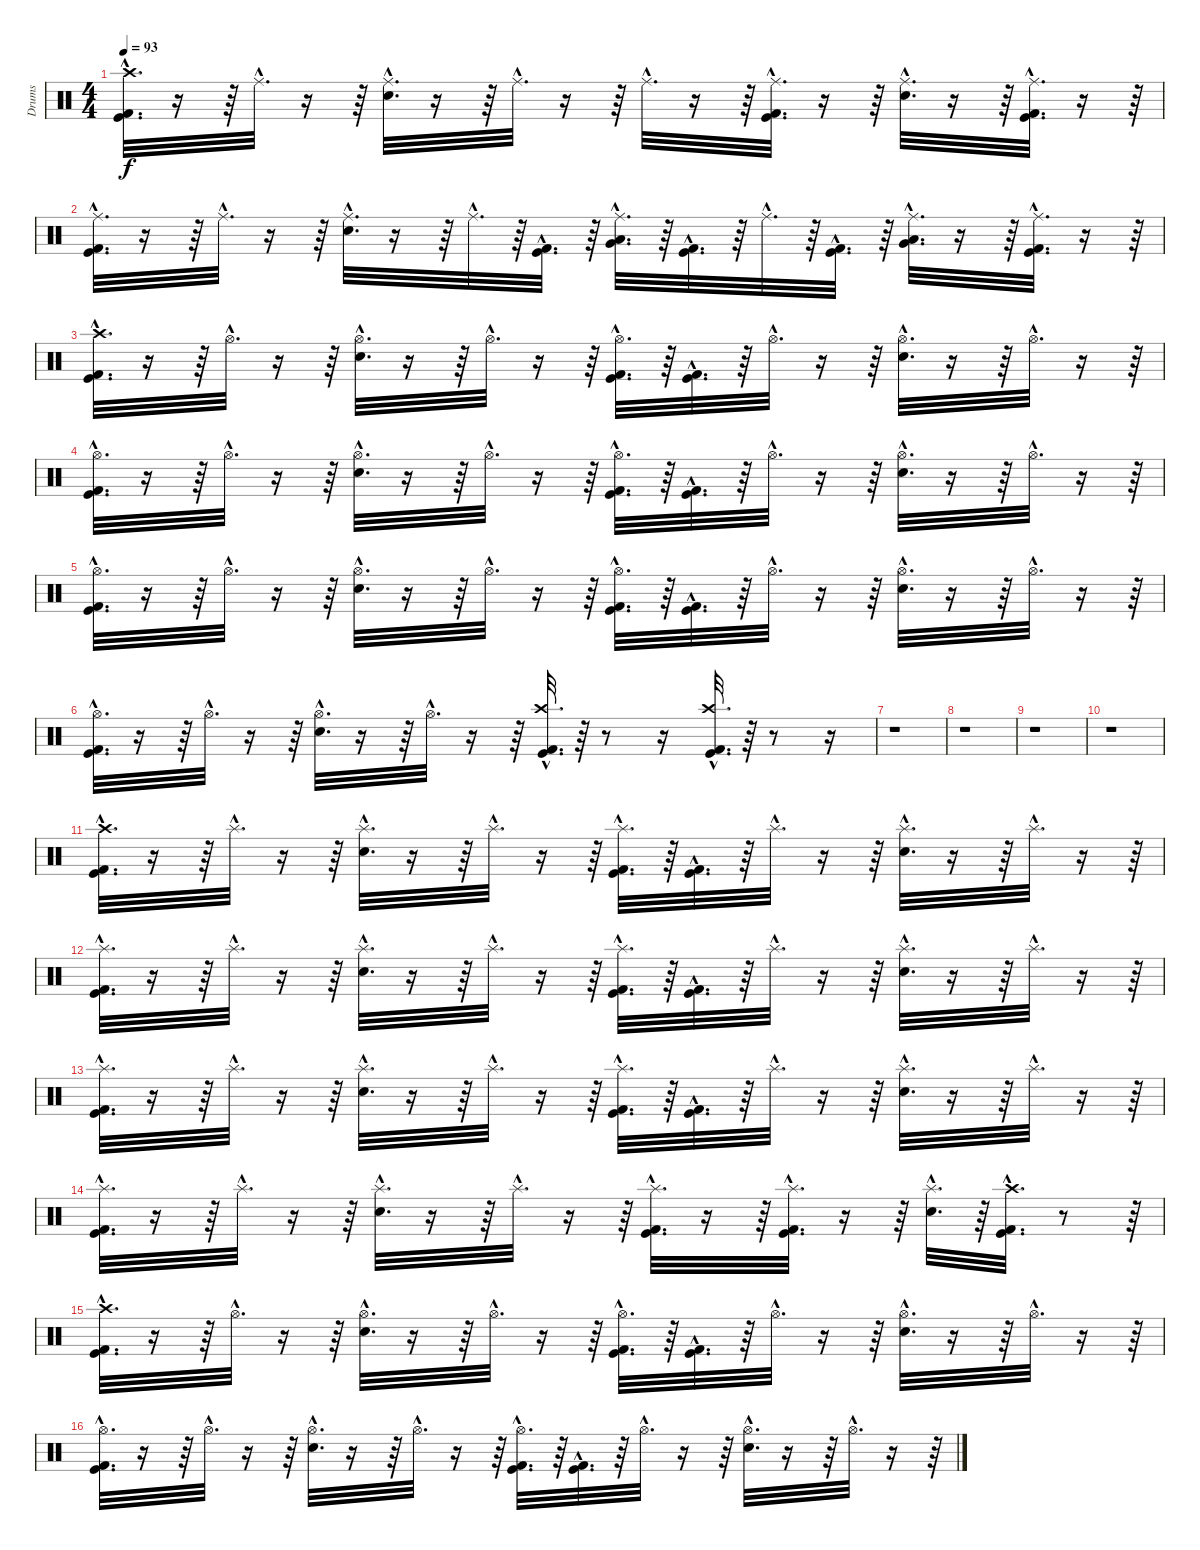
\track ("Drums" "Drums") {instrument percussion}
\staff {score}
\articulation defaults
\ts (4 4)
\tempo 93
\clef neutral
\ks c
("Kick (hit)"{hac} "Crash high (hit)"{hac} "Kick (hit) 2"{hac}).32{d dy f} r.16 r.64 "Ride (middle)"{hac}.32{d} r.16 r.64 ("Ride (middle)"{hac} "Snare (hit) 2"{hac}).32{d} r.16 r.64 "Ride (middle)"{hac}.32{d} r.16 r.64 "Ride (middle)"{hac}.32{d} r.16 r.64 ("Kick (hit)"{hac} "Ride (middle)"{hac} "Kick (hit) 2"{hac}).32{d} r.16 r.64 ("Ride (middle)"{hac} "Snare (hit) 2"{hac}).32{d} r.16 r.64 ("Kick (hit)"{hac} "Ride (middle)"{hac} "Kick (hit) 2"{hac}).32{d} r.16 r.64 |
("Kick (hit)"{hac} "Ride (middle)"{hac} "Kick (hit) 2"{hac}).32{d} r.16 r.64 "Ride (middle)"{hac}.32{d} r.16 r.64 ("Snare (hit) 2"{hac} "Ride (middle)"{hac}).32{d} r.16 r.64 "Ride (middle)"{hac}.32{d} r.64 ("Kick (hit)"{hac} "Kick (hit) 2"{hac}).32{d} r.64 ("Low Tom (hit)"{hac} "Very Low Tom (hit)"{hac} "Ride (middle)"{hac}).32{d} r.64 ("Kick (hit)"{hac} "Kick (hit) 2"{hac}).32{d} r.64 "Ride (middle)"{hac}.32{d} r.64 ("Kick (hit)"{hac} "Kick (hit) 2"{hac}).32{d} r.64 ("Low Tom (hit)"{hac} "Very Low Tom (hit)"{hac} "Ride (middle)"{hac}).32{d} r.16 r.64 ("Kick (hit)"{hac} "Ride (middle)"{hac} "Kick (hit) 2"{hac}).32{d} r.16 r.64 |
("Kick (hit)"{hac} "Crash high (hit)"{hac} "Kick (hit) 2"{hac}).32{d} r.16 r.64 "Hi-Hat (open)"{hac}.32{d} r.16 r.64 ("Hi-Hat (open)"{hac} "Snare (hit) 2"{hac}).32{d} r.16 r.64 "Hi-Hat (open)"{hac}.32{d} r.16 r.64 ("Kick (hit)"{hac} "Hi-Hat (open)"{hac} "Kick (hit) 2"{hac}).32{d} r.64 ("Kick (hit)"{hac} "Kick (hit) 2"{hac}).32{d} r.64 "Hi-Hat (open)"{hac}.32{d} r.16 r.64 ("Hi-Hat (open)"{hac} "Snare (hit) 2"{hac}).32{d} r.16 r.64 "Hi-Hat (open)"{hac}.32{d} r.16 r.64 |
("Kick (hit)"{hac} "Hi-Hat (open)"{hac} "Kick (hit) 2"{hac}).32{d} r.16 r.64 "Hi-Hat (open)"{hac}.32{d} r.16 r.64 ("Hi-Hat (open)"{hac} "Snare (hit) 2"{hac}).32{d} r.16 r.64 "Hi-Hat (open)"{hac}.32{d} r.16 r.64 ("Kick (hit)"{hac} "Hi-Hat (open)"{hac} "Kick (hit) 2"{hac}).32{d} r.64 ("Kick (hit)"{hac} "Kick (hit) 2"{hac}).32{d} r.64 "Hi-Hat (open)"{hac}.32{d} r.16 r.64 ("Hi-Hat (open)"{hac} "Snare (hit) 2"{hac}).32{d} r.16 r.64 "Hi-Hat (open)"{hac}.32{d} r.16 r.64 |
("Kick (hit)"{hac} "Hi-Hat (open)"{hac} "Kick (hit) 2"{hac}).32{d} r.16 r.64 "Hi-Hat (open)"{hac}.32{d} r.16 r.64 ("Hi-Hat (open)"{hac} "Snare (hit) 2"{hac}).32{d} r.16 r.64 "Hi-Hat (open)"{hac}.32{d} r.16 r.64 ("Kick (hit)"{hac} "Hi-Hat (open)"{hac} "Kick (hit) 2"{hac}).32{d} r.64 ("Kick (hit)"{hac} "Kick (hit) 2"{hac}).32{d} r.64 "Hi-Hat (open)"{hac}.32{d} r.16 r.64 ("Hi-Hat (open)"{hac} "Snare (hit) 2"{hac}).32{d} r.16 r.64 "Hi-Hat (open)"{hac}.32{d} r.16 r.64 |
("Kick (hit)"{hac} "Kick (hit) 2"{hac} "Hi-Hat (open)"{hac}).32{d} r.16 r.64 "Hi-Hat (open)"{hac}.32{d} r.16 r.64 ("Snare (hit) 2"{hac} "Hi-Hat (open)"{hac}).32{d} r.16 r.64 "Hi-Hat (open)"{hac}.32{d} r.16 r.64 ("Kick (hit)"{hac} "Crash high (hit)"{hac} "Kick (hit) 2"{hac}).32{d} r.64 r.8 r.16 ("Kick (hit)"{hac} "Crash high (hit)"{hac} "Kick (hit) 2"{hac}).32{d} r.64 r.8 r.16 |
r.1 |
r.1 |
r.1 |
r.1 |
("Kick (hit)"{hac} "Crash high (hit)"{hac} "Kick (hit) 2"{hac}).32{d} r.16 r.64 "Splash (hit)"{hac}.32{d} r.16 r.64 ("Splash (hit)"{hac} "Snare (hit) 2"{hac}).32{d} r.16 r.64 "Splash (hit)"{hac}.32{d} r.16 r.64 ("Kick (hit)"{hac} "Splash (hit)"{hac} "Kick (hit) 2"{hac}).32{d} r.64 ("Kick (hit)"{hac} "Kick (hit) 2"{hac}).32{d} r.64 "Splash (hit)"{hac}.32{d} r.16 r.64 ("Splash (hit)"{hac} "Snare (hit) 2"{hac}).32{d} r.16 r.64 "Splash (hit)"{hac}.32{d} r.16 r.64 |
("Kick (hit)"{hac} "Splash (hit)"{hac} "Kick (hit) 2"{hac}).32{d} r.16 r.64 "Splash (hit)"{hac}.32{d} r.16 r.64 ("Splash (hit)"{hac} "Snare (hit) 2"{hac}).32{d} r.16 r.64 "Splash (hit)"{hac}.32{d} r.16 r.64 ("Kick (hit)"{hac} "Splash (hit)"{hac} "Kick (hit) 2"{hac}).32{d} r.64 ("Kick (hit)"{hac} "Kick (hit) 2"{hac}).32{d} r.64 "Splash (hit)"{hac}.32{d} r.16 r.64 ("Splash (hit)"{hac} "Snare (hit) 2"{hac}).32{d} r.16 r.64 "Splash (hit)"{hac}.32{d} r.16 r.64 |
("Kick (hit)"{hac} "Splash (hit)"{hac} "Kick (hit) 2"{hac}).32{d} r.16 r.64 "Splash (hit)"{hac}.32{d} r.16 r.64 ("Splash (hit)"{hac} "Snare (hit) 2"{hac}).32{d} r.16 r.64 "Splash (hit)"{hac}.32{d} r.16 r.64 ("Kick (hit)"{hac} "Splash (hit)"{hac} "Kick (hit) 2"{hac}).32{d} r.64 ("Kick (hit)"{hac} "Kick (hit) 2"{hac}).32{d} r.64 "Splash (hit)"{hac}.32{d} r.16 r.64 ("Splash (hit)"{hac} "Snare (hit) 2"{hac}).32{d} r.16 r.64 "Splash (hit)"{hac}.32{d} r.16 r.64 |
("Kick (hit)"{hac} "Splash (hit)"{hac} "Kick (hit) 2"{hac}).32{d} r.16 r.64 "Splash (hit)"{hac}.32{d} r.16 r.64 ("Splash (hit)"{hac} "Snare (hit) 2"{hac}).32{d} r.16 r.64 "Splash (hit)"{hac}.32{d} r.16 r.64 ("Kick (hit)"{hac} "Kick (hit) 2"{hac} "Splash (hit)"{hac}).32{d} r.16 r.64 ("Kick (hit)"{hac} "Kick (hit) 2"{hac} "Splash (hit)"{hac}).32{d} r.16 r.64 ("Splash (hit)"{hac} "Snare (hit) 2"{hac}).32{d} r.64 ("Kick (hit)"{hac} "Crash high (hit)"{hac} "Kick (hit) 2"{hac}).32{d} r.8 r.64 |
("Kick (hit)"{hac} "Crash high (hit)"{hac} "Kick (hit) 2"{hac}).32{d} r.16 r.64 "Hi-Hat (open)"{hac}.32{d} r.16 r.64 ("Hi-Hat (open)"{hac} "Snare (hit) 2"{hac}).32{d} r.16 r.64 "Hi-Hat (open)"{hac}.32{d} r.16 r.64 ("Kick (hit)"{hac} "Hi-Hat (open)"{hac} "Kick (hit) 2"{hac}).32{d} r.64 ("Kick (hit)"{hac} "Kick (hit) 2"{hac}).32{d} r.64 "Hi-Hat (open)"{hac}.32{d} r.16 r.64 ("Hi-Hat (open)"{hac} "Snare (hit) 2"{hac}).32{d} r.16 r.64 "Hi-Hat (open)"{hac}.32{d} r.16 r.64 |
("Kick (hit)"{hac} "Hi-Hat (open)"{hac} "Kick (hit) 2"{hac}).32{d} r.16 r.64 "Hi-Hat (open)"{hac}.32{d} r.16 r.64 ("Hi-Hat (open)"{hac} "Snare (hit) 2"{hac}).32{d} r.16 r.64 "Hi-Hat (open)"{hac}.32{d} r.16 r.64 ("Kick (hit)"{hac} "Kick (hit) 2"{hac} "Hi-Hat (open)"{hac}).32{d} r.64 ("Kick (hit)"{hac} "Kick (hit) 2"{hac}).32{d} r.64 "Hi-Hat (open)"{hac}.32{d} r.16 r.64 ("Hi-Hat (open)"{hac} "Snare (hit) 2"{hac}).32{d} r.16 r.64 "Hi-Hat (open)"{hac}.32{d} r.16 r.64
